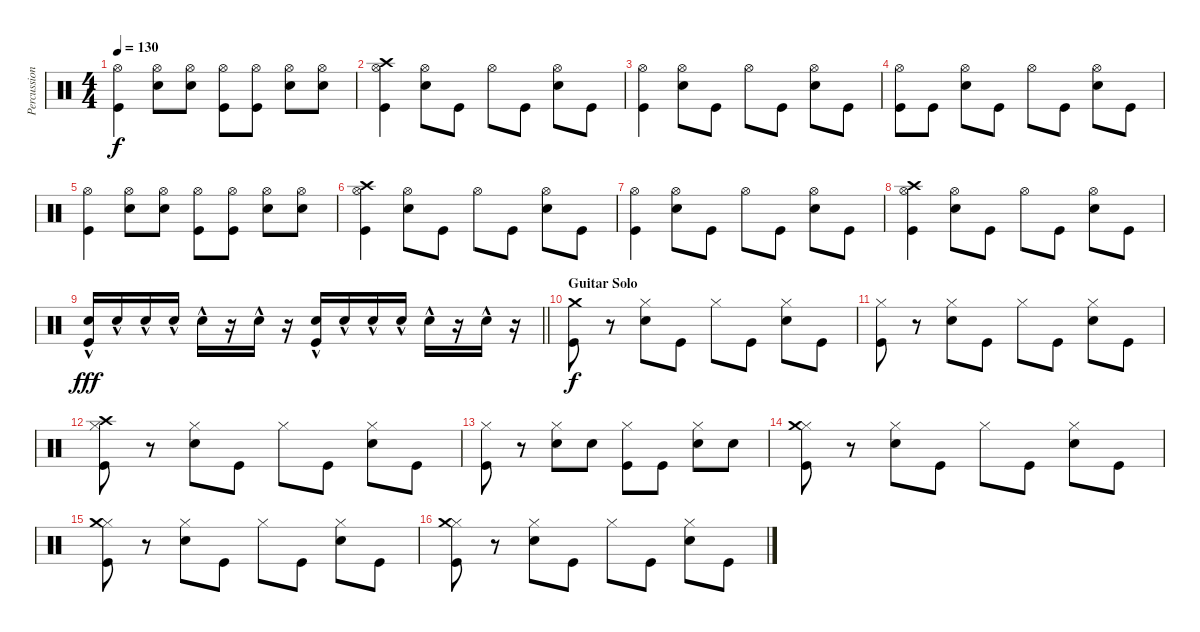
\track ("Percussion 1" "Percussion") {instrument percussion}
\staff {score}
\articulation defaults
\ts (4 4)
\tempo 130
\clef neutral
\ks c
("Hi-Hat (open)" "Kick (hit)").4{dy f} ("Hi-Hat (open)" "Electric Snare (hit)").8 ("Hi-Hat (open)" "Electric Snare (hit)").8 ("Hi-Hat (open)" "Kick (hit)").8 ("Hi-Hat (open)" "Kick (hit)").8 ("Hi-Hat (open)" "Electric Snare (hit)").8 ("Hi-Hat (open)" "Electric Snare (hit)").8 |
("Hi-Hat (open)" "Crash high (hit)" "Kick (hit)").4 ("Hi-Hat (open)" "Electric Snare (hit)").8 "Kick (hit)".8 "Hi-Hat (open)".8 "Kick (hit)".8 ("Hi-Hat (open)" "Electric Snare (hit)").8 "Kick (hit)".8 |
("Hi-Hat (open)" "Kick (hit)").4 ("Hi-Hat (open)" "Electric Snare (hit)").8 "Kick (hit)".8 "Hi-Hat (open)".8 "Kick (hit)".8 ("Hi-Hat (open)" "Electric Snare (hit)").8 "Kick (hit)".8 |
("Hi-Hat (open)" "Kick (hit)").8 "Kick (hit)".8 ("Hi-Hat (open)" "Electric Snare (hit)").8 "Kick (hit)".8 "Hi-Hat (open)".8 "Kick (hit)".8 ("Hi-Hat (open)" "Electric Snare (hit)").8 "Kick (hit)".8 |
("Hi-Hat (open)" "Kick (hit)").4 ("Hi-Hat (open)" "Electric Snare (hit)").8 ("Hi-Hat (open)" "Electric Snare (hit)").8 ("Hi-Hat (open)" "Kick (hit)").8 ("Hi-Hat (open)" "Kick (hit)").8 ("Hi-Hat (open)" "Electric Snare (hit)").8 ("Hi-Hat (open)" "Electric Snare (hit)").8 |
("Hi-Hat (open)" "Crash high (hit)" "Kick (hit)").4 ("Hi-Hat (open)" "Electric Snare (hit)").8 "Kick (hit)".8 "Hi-Hat (open)".8 "Kick (hit)".8 ("Hi-Hat (open)" "Electric Snare (hit)").8 "Kick (hit)".8 |
("Hi-Hat (open)" "Kick (hit)").4 ("Hi-Hat (open)" "Electric Snare (hit)").8 "Kick (hit)".8 "Hi-Hat (open)".8 "Kick (hit)".8 ("Hi-Hat (open)" "Electric Snare (hit)").8 "Kick (hit)".8 |
("Hi-Hat (open)" "Crash high (hit)" "Kick (hit)").4 ("Hi-Hat (open)" "Electric Snare (hit)").8 "Kick (hit)".8 "Hi-Hat (open)".8 "Kick (hit)".8 ("Hi-Hat (open)" "Electric Snare (hit)").8 "Kick (hit)".8 |
\barLineRight lightlight
("Electric Snare (hit)"{hac} "Kick (hit)"{hac}).16{dy fff} "Electric Snare (hit)"{hac}.16 "Electric Snare (hit)"{hac}.16 "Electric Snare (hit)"{hac}.16 "Electric Snare (hit)"{hac}.16 r.16 "Electric Snare (hit)"{hac}.16 r.16 ("Electric Snare (hit)"{hac} "Kick (hit)"{hac}).16 "Electric Snare (hit)"{hac}.16 "Electric Snare (hit)"{hac}.16 "Electric Snare (hit)"{hac}.16 "Electric Snare (hit)"{hac}.16 r.16 "Electric Snare (hit)"{hac}.16 r.16 |
\section ("" "Guitar Solo")
("Crash medium (hit)" "Kick (hit)").8{dy f} r.8 ("Hi-Hat (closed)" "Electric Snare (hit)").8 "Kick (hit)".8 "Hi-Hat (closed)".8 "Kick (hit)".8 ("Hi-Hat (closed)" "Electric Snare (hit)").8 "Kick (hit)".8 |
("Hi-Hat (closed)" "Kick (hit)").8 r.8 ("Hi-Hat (closed)" "Electric Snare (hit)").8 "Kick (hit)".8 "Hi-Hat (closed)".8 "Kick (hit)".8 ("Hi-Hat (closed)" "Electric Snare (hit)").8 "Kick (hit)".8 |
("Hi-Hat (closed)" "Crash high (hit)" "Kick (hit)").8 r.8 ("Hi-Hat (closed)" "Electric Snare (hit)").8 "Kick (hit)".8 "Hi-Hat (closed)".8 "Kick (hit)".8 ("Hi-Hat (closed)" "Electric Snare (hit)").8 "Kick (hit)".8 |
("Hi-Hat (closed)" "Kick (hit)").8 r.8 ("Hi-Hat (closed)" "Electric Snare (hit)").8 "Electric Snare (hit)".8 ("Hi-Hat (closed)" "Kick (hit)").8 "Kick (hit)".8 ("Hi-Hat (closed)" "Electric Snare (hit)").8 "Electric Snare (hit)".8 |
("Hi-Hat (closed)" "Crash medium (hit)" "Kick (hit)").8 r.8 ("Hi-Hat (closed)" "Electric Snare (hit)").8 "Kick (hit)".8 "Hi-Hat (closed)".8 "Kick (hit)".8 ("Hi-Hat (closed)" "Electric Snare (hit)").8 "Kick (hit)".8 |
("Hi-Hat (closed)" "Crash medium (hit)" "Kick (hit)").8 r.8 ("Hi-Hat (closed)" "Electric Snare (hit)").8 "Kick (hit)".8 "Hi-Hat (closed)".8 "Kick (hit)".8 ("Hi-Hat (closed)" "Electric Snare (hit)").8 "Kick (hit)".8 |
("Hi-Hat (closed)" "Crash medium (hit)" "Kick (hit)").8 r.8 ("Hi-Hat (closed)" "Electric Snare (hit)").8 "Kick (hit)".8 "Hi-Hat (closed)".8 "Kick (hit)".8 ("Hi-Hat (closed)" "Electric Snare (hit)").8 "Kick (hit)".8
